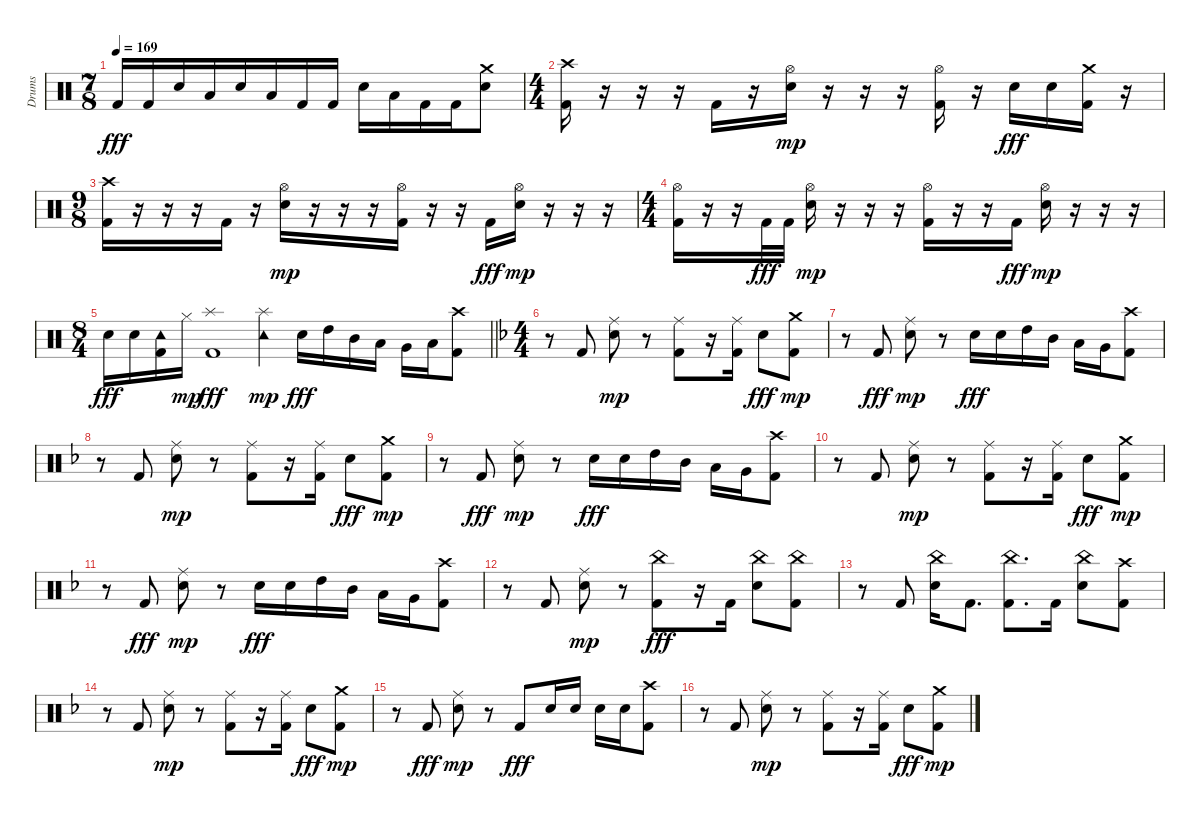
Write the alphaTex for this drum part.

\track ("Drums" "Drums") {instrument percussion}
\staff {score}
\articulation defaults
\ts (7 8)
\tempo 169
\clef neutral
\ks c "Kick (hit) 2".16{dy fff} "Kick (hit) 2".16 "Electric Snare (hit)".16 "Low Tom (hit)".16 "Electric Snare (hit)".16 "Low Tom (hit)".16 "Kick (hit) 2".16 "Kick (hit) 2".16 "Electric Snare (hit)".16 "Low Tom (hit)".16 "Kick (hit) 2".16 "Kick (hit) 2".16
("Electric Snare (hit)" "Crash medium (hit)").8 |
\ts (4 4)
("Kick (hit) 2" "Crash high (hit)").16 r.16 r.16 r.16 "Kick (hit) 2".16 r.16 ("Electric Snare (hit)" "Hi-Hat (open)").16{dy mp} r.16 r.16 r.16 ("Kick (hit) 2" "Hi-Hat (open)").16 r.16 "Electric Snare (hit)".16{dy fff} "Electric Snare (hit)".16 ("Kick (hit) 2" "Crash medium (hit)").16 r.16 |
\ts (9 8)
("Kick (hit) 2" "Crash high (hit)").16 r.16 r.16 r.16 "Kick (hit) 2".16 r.16 ("Electric Snare (hit)" "Hi-Hat (open)").16{dy mp} r.16 r.16 r.16 ("Kick (hit) 2" "Hi-Hat (open)").16 r.16 r.16 "Kick (hit) 2".16{dy fff} ("Electric Snare (hit)" "Hi-Hat (open)").16{dy mp} r.16 r.16 r.16 |
\ts (4 4)
("Kick (hit) 2" "Hi-Hat (open)").16 r.16 r.16 "Kick (hit) 2".32{dy fff} "Kick (hit) 2".32 ("Electric Snare (hit)" "Hi-Hat (open)").16{dy mp} r.16 r.16 r.16 ("Kick (hit) 2" "Hi-Hat (open)").16 r.16 r.16 "Kick (hit) 2".16{dy fff} ("Electric Snare (hit)" "Hi-Hat (open)").16{dy mp} r.16 r.16 r.16 |
\ts (8 4)
\barLineRight lightlight "Electric Snare (hit)".16{dy fff} "Electric Snare (hit)".16
("Kick (hit) 2" "Tambourine (hit)").16 "Hi-Hat (closed)".16{dy mp} ("Kick (hit) 2" "Splash (hit)").1{dy fff} ("Splash (hit)" "Tambourine (hit)").4{dy mp} "Electric Snare (hit)".16{dy fff} "High Tom (hit)".16 "Mid Tom (hit)".16 "Low Tom (hit)".16 "Very Low Tom (hit)".16 "Low Floor Tom (hit)".16 ("Kick (hit) 2" "Crash high (hit)").8 |
\ts (4 4)
\ks f
r.8 "Kick (hit) 2".8 ("Electric Snare (hit)" "Ride (middle)").8{dy mp} r.8 ("Kick (hit) 2" "Ride (middle)").8 r.16 ("Kick (hit) 2" "Ride (middle)").16 "Electric Snare (hit)".8{dy fff} ("Kick (hit) 2" "Crash medium (hit)").8{dy mp} |
r.8 "Kick (hit) 2".8{dy fff} ("Electric Snare (hit)" "Ride (middle)").8{dy mp} r.8 "Electric Snare (hit)".16{dy fff} "Electric Snare (hit)".16 "High Tom (hit)".16 "Mid Tom (hit)".16 "Low Tom (hit)".16 "Very Low Tom (hit)".16 ("Kick (hit) 2" "Crash high (hit)").8 |
r.8 "Kick (hit) 2".8 ("Electric Snare (hit)" "Ride (middle)").8{dy mp} r.8 ("Kick (hit) 2" "Ride (middle)").8 r.16 ("Kick (hit) 2" "Ride (middle)").16 "Electric Snare (hit)".8{dy fff} ("Kick (hit) 2" "Crash medium (hit)").8{dy mp} |
r.8 "Kick (hit) 2".8{dy fff} ("Electric Snare (hit)" "Ride (middle)").8{dy mp} r.8 "Electric Snare (hit)".16{dy fff} "Electric Snare (hit)".16 "High Tom (hit)".16 "Mid Tom (hit)".16 "Low Tom (hit)".16 "Very Low Tom (hit)".16 ("Kick (hit) 2" "Crash high (hit)").8 |
r.8 "Kick (hit) 2".8 ("Electric Snare (hit)" "Ride (middle)").8{dy mp} r.8 ("Kick (hit) 2" "Ride (middle)").8 r.16 ("Kick (hit) 2" "Ride (middle)").16 "Electric Snare (hit)".8{dy fff} ("Kick (hit) 2" "Crash medium (hit)").8{dy mp} |
r.8 "Kick (hit) 2".8{dy fff} ("Electric Snare (hit)" "Ride (middle)").8{dy mp} r.8 "Electric Snare (hit)".16{dy fff} "Electric Snare (hit)".16 "High Tom (hit)".16 "Mid Tom (hit)".16 "Low Tom (hit)".16 "Very Low Tom (hit)".16 ("Kick (hit) 2" "Crash high (hit)").8 |
r.8 "Kick (hit) 2".8 ("Electric Snare (hit)" "Ride (middle)").8{dy mp} r.8 ("Kick (hit) 2" "China (hit)").8{dy fff} r.16 "Kick (hit) 2".16 ("Electric Snare (hit)" "China (hit)").8 ("Kick (hit) 2" "China (hit)").8 |
r.8 "Kick (hit) 2".8 ("Electric Snare (hit)" "China (hit)").16 "Kick (hit) 2".8{d} ("Kick (hit) 2" "China (hit)").8{d} "Kick (hit) 2".16 ("Electric Snare (hit)" "China (hit)").8 ("Kick (hit) 2" "Crash high (hit)").8 |
r.8 "Kick (hit) 2".8 ("Electric Snare (hit)" "Ride (middle)").8{dy mp} r.8 ("Kick (hit) 2" "Ride (middle)").8 r.16 ("Kick (hit) 2" "Ride (middle)").16 "Electric Snare (hit)".8{dy fff} ("Kick (hit) 2" "Crash medium (hit)").8{dy mp} |
r.8 "Kick (hit) 2".8{dy fff} ("Electric Snare (hit)" "Ride (middle)").8{dy mp} r.8 "Kick (hit) 2".8{dy fff} "Electric Snare (hit)".16 "Electric Snare (hit)".16 "Electric Snare (hit)".16 "Electric Snare (hit)".16 ("Kick (hit) 2" "Crash high (hit)").8 |
r.8 "Kick (hit) 2".8 ("Electric Snare (hit)" "Ride (middle)").8{dy mp} r.8 ("Kick (hit) 2" "Ride (middle)").8 r.16 ("Kick (hit) 2" "Ride (middle)").16 "Electric Snare (hit)".8{dy fff} ("Kick (hit) 2" "Crash medium (hit)").8{dy mp}
